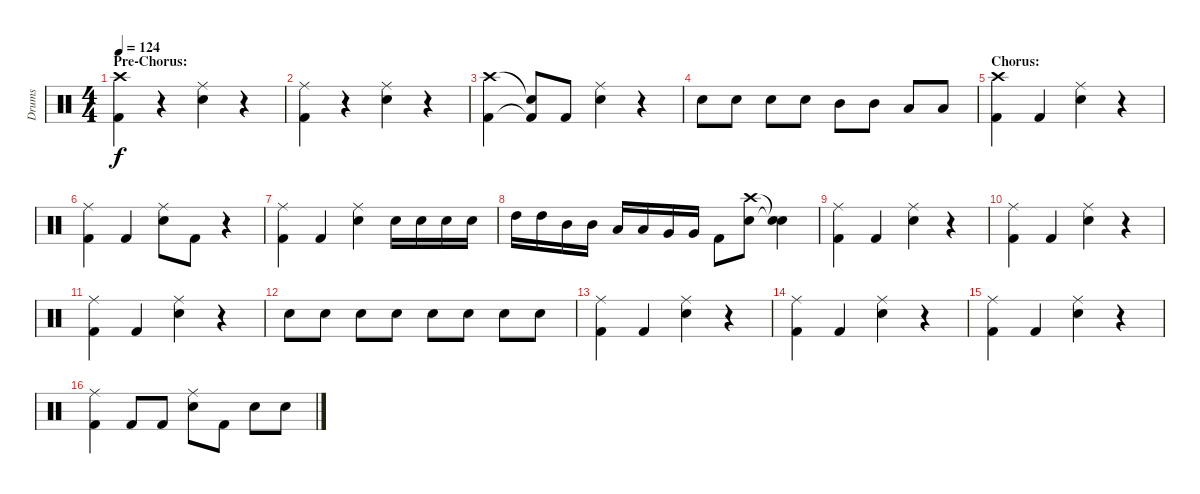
\track ("Drums" "Drums") {instrument percussion}
\staff {score}
\articulation defaults
\ts (4 4)
\section ("" "Pre-Chorus:")
\tempo 124
\clef neutral
\ks c
("Crash high (hit)" "Kick (hit) 2").4{dy f} r.4 ("Ride (middle)" "Electric Snare (hit)").4 r.4 |
("Ride (middle)" "Kick (hit) 2").4 r.4 ("Ride (middle)" "Electric Snare (hit)").4 r.4 |
("Crash high (hit)" "Kick (hit) 2").4 ("Snare (hit)"{t} "Kick (hit) 2"{t}).8 "Kick (hit) 2".8 ("Ride (middle)" "Electric Snare (hit)").4 r.4 |
"Electric Snare (hit)".8 "Electric Snare (hit)".8 "Electric Snare (hit)".8 "Electric Snare (hit)".8 "Mid Tom (hit)".8 "Mid Tom (hit)".8 "Low Tom (hit)".8 "Low Tom (hit)".8 |
\section ("" "Chorus:")
("Crash high (hit)" "Kick (hit) 2").4 "Kick (hit) 2".4 ("Ride (middle)" "Electric Snare (hit)").4 r.4 |
("Ride (middle)" "Kick (hit) 2").4 "Kick (hit) 2".4 ("Ride (middle)" "Electric Snare (hit)").8 "Kick (hit) 2".8 r.4 |
("Ride (middle)" "Kick (hit) 2").4 "Kick (hit) 2".4 ("Ride (middle)" "Electric Snare (hit)").4 "Electric Snare (hit)".16 "Electric Snare (hit)".16 "Electric Snare (hit)".16 "Electric Snare (hit)".16 |
"High Tom (hit)".16 "High Tom (hit)".16 "Mid Tom (hit)".16 "Mid Tom (hit)".16 "Low Tom (hit)".16 "Low Tom (hit)".16 "Very Low Tom (hit)".16 "Very Low Tom (hit)".16 "Kick (hit) 2".8 ("Crash high (hit)" "Electric Snare (hit)").8 ("Snare (hit)"{t} "Snare (hit)"{t}).4 |
("Ride (middle)" "Kick (hit) 2").4 "Kick (hit) 2".4 ("Ride (middle)" "Electric Snare (hit)").4 r.4 |
("Ride (middle)" "Kick (hit) 2").4 "Kick (hit) 2".4 ("Ride (middle)" "Electric Snare (hit)").4 r.4 |
("Ride (middle)" "Kick (hit) 2").4 "Kick (hit) 2".4 ("Ride (middle)" "Electric Snare (hit)").4 r.4 |
"Electric Snare (hit)".8 "Electric Snare (hit)".8 "Electric Snare (hit)".8 "Electric Snare (hit)".8 "Electric Snare (hit)".8 "Electric Snare (hit)".8 "Electric Snare (hit)".8 "Electric Snare (hit)".8 |
("Ride (middle)" "Kick (hit) 2").4 "Kick (hit) 2".4 ("Ride (middle)" "Electric Snare (hit)").4 r.4 |
("Ride (middle)" "Kick (hit) 2").4 "Kick (hit) 2".4 ("Ride (middle)" "Electric Snare (hit)").4 r.4 |
("Ride (middle)" "Kick (hit) 2").4 "Kick (hit) 2".4 ("Ride (middle)" "Electric Snare (hit)").4 r.4 |
("Ride (middle)" "Kick (hit) 2").4 "Kick (hit) 2".8 "Kick (hit) 2".8 ("Ride (middle)" "Electric Snare (hit)").8 "Kick (hit) 2".8 "Electric Snare (hit)".8 "Electric Snare (hit)".8
